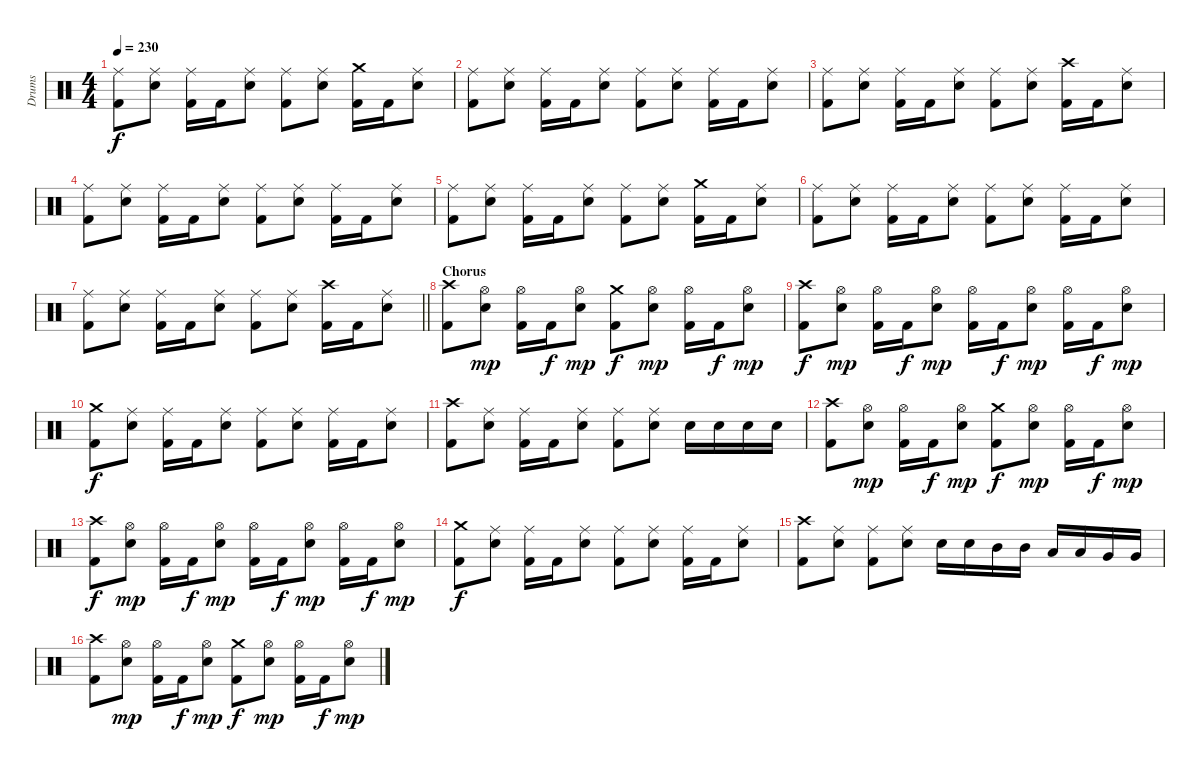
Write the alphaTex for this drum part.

\track ("Drums" "Drums") {instrument percussion}
\staff {score}
\articulation defaults
\ts (4 4)
\tempo 230
\clef neutral
\ks c
("Ride (middle)" "Kick (hit) 2").8{dy f} ("Ride (middle)" "Snare (hit) 2").8 ("Ride (middle)" "Kick (hit) 2").16 "Kick (hit) 2".16 ("Ride (middle)" "Snare (hit) 2").8 ("Ride (middle)" "Kick (hit) 2").8 ("Ride (middle)" "Snare (hit) 2").8 ("Crash medium (hit)" "Kick (hit) 2").16 "Kick (hit) 2".16 ("Ride (middle)" "Snare (hit) 2").8 |
("Ride (middle)" "Kick (hit) 2").8 ("Ride (middle)" "Snare (hit) 2").8 ("Ride (middle)" "Kick (hit) 2").16 "Kick (hit) 2".16 ("Ride (middle)" "Snare (hit) 2").8 ("Ride (middle)" "Kick (hit) 2").8 ("Ride (middle)" "Snare (hit) 2").8 ("Ride (middle)" "Kick (hit) 2").16 "Kick (hit) 2".16 ("Ride (middle)" "Snare (hit) 2").8 |
("Ride (middle)" "Kick (hit) 2").8 ("Ride (middle)" "Snare (hit) 2").8 ("Ride (middle)" "Kick (hit) 2").16 "Kick (hit) 2".16 ("Ride (middle)" "Snare (hit) 2").8 ("Ride (middle)" "Kick (hit) 2").8 ("Ride (middle)" "Snare (hit) 2").8 ("Crash high (hit)" "Kick (hit) 2").16 "Kick (hit) 2".16 ("Ride (middle)" "Snare (hit) 2").8 |
("Ride (middle)" "Kick (hit) 2").8 ("Ride (middle)" "Snare (hit) 2").8 ("Ride (middle)" "Kick (hit) 2").16 "Kick (hit) 2".16 ("Ride (middle)" "Snare (hit) 2").8 ("Ride (middle)" "Kick (hit) 2").8 ("Ride (middle)" "Snare (hit) 2").8 ("Ride (middle)" "Kick (hit) 2").16 "Kick (hit) 2".16 ("Ride (middle)" "Snare (hit) 2").8 |
("Ride (middle)" "Kick (hit) 2").8 ("Ride (middle)" "Snare (hit) 2").8 ("Ride (middle)" "Kick (hit) 2").16 "Kick (hit) 2".16 ("Ride (middle)" "Snare (hit) 2").8 ("Ride (middle)" "Kick (hit) 2").8 ("Ride (middle)" "Snare (hit) 2").8 ("Crash medium (hit)" "Kick (hit) 2").16 "Kick (hit) 2".16 ("Ride (middle)" "Snare (hit) 2").8 |
("Ride (middle)" "Kick (hit) 2").8 ("Ride (middle)" "Snare (hit) 2").8 ("Ride (middle)" "Kick (hit) 2").16 "Kick (hit) 2".16 ("Ride (middle)" "Snare (hit) 2").8 ("Ride (middle)" "Kick (hit) 2").8 ("Ride (middle)" "Snare (hit) 2").8 ("Ride (middle)" "Kick (hit) 2").16 "Kick (hit) 2".16 ("Ride (middle)" "Snare (hit) 2").8 |
\barLineRight lightlight
("Ride (middle)" "Kick (hit) 2").8 ("Ride (middle)" "Snare (hit) 2").8 ("Ride (middle)" "Kick (hit) 2").16 "Kick (hit) 2".16 ("Ride (middle)" "Snare (hit) 2").8 ("Ride (middle)" "Kick (hit) 2").8 ("Ride (middle)" "Snare (hit) 2").8 ("Crash high (hit)" "Kick (hit) 2").16 "Kick (hit) 2".16 ("Ride (middle)" "Snare (hit) 2").8 |
\section ("" "Chorus")
("Crash high (hit)" "Kick (hit) 2").8 ("Hi-Hat (open)" "Snare (hit) 2").8{dy mp} ("Hi-Hat (open)" "Kick (hit) 2").16 "Kick (hit) 2".16{dy f} ("Hi-Hat (open)" "Snare (hit) 2").8{dy mp} ("Crash medium (hit)" "Kick (hit) 2").8{dy f} ("Hi-Hat (open)" "Snare (hit) 2").8{dy mp} ("Hi-Hat (open)" "Kick (hit) 2").16 "Kick (hit) 2".16{dy f} ("Hi-Hat (open)" "Snare (hit) 2").8{dy mp} |
("Crash high (hit)" "Kick (hit) 2").8{dy f} ("Hi-Hat (open)" "Snare (hit) 2").8{dy mp} ("Hi-Hat (open)" "Kick (hit) 2").16 "Kick (hit) 2".16{dy f} ("Hi-Hat (open)" "Snare (hit) 2").8{dy mp} ("Hi-Hat (open)" "Kick (hit) 2").16 "Kick (hit) 2".16{dy f} ("Hi-Hat (open)" "Snare (hit) 2").8{dy mp} ("Hi-Hat (open)" "Kick (hit) 2").16 "Kick (hit) 2".16{dy f} ("Hi-Hat (open)" "Snare (hit) 2").8{dy mp} |
("Crash medium (hit)" "Kick (hit) 2").8{dy f} ("Ride (middle)" "Snare (hit) 2").8 ("Ride (middle)" "Kick (hit) 2").16 "Kick (hit) 2".16 ("Ride (middle)" "Snare (hit) 2").8 ("Ride (middle)" "Kick (hit) 2").8 ("Ride (middle)" "Snare (hit) 2").8 ("Ride (middle)" "Kick (hit) 2").16 "Kick (hit) 2".16 ("Ride (middle)" "Snare (hit) 2").8 |
("Crash high (hit)" "Kick (hit) 2").8 ("Ride (middle)" "Snare (hit) 2").8 ("Ride (middle)" "Kick (hit) 2").16 "Kick (hit) 2".16 ("Ride (middle)" "Snare (hit) 2").8 ("Ride (middle)" "Kick (hit) 2").8 ("Ride (middle)" "Snare (hit) 2").8 "Snare (hit) 2".16 "Snare (hit) 2".16 "Snare (hit) 2".16 "Snare (hit) 2".16 |
("Crash high (hit)" "Kick (hit) 2").8 ("Hi-Hat (open)" "Snare (hit) 2").8{dy mp} ("Hi-Hat (open)" "Kick (hit) 2").16 "Kick (hit) 2".16{dy f} ("Hi-Hat (open)" "Snare (hit) 2").8{dy mp} ("Crash medium (hit)" "Kick (hit) 2").8{dy f} ("Hi-Hat (open)" "Snare (hit) 2").8{dy mp} ("Hi-Hat (open)" "Kick (hit) 2").16 "Kick (hit) 2".16{dy f} ("Hi-Hat (open)" "Snare (hit) 2").8{dy mp} |
("Crash high (hit)" "Kick (hit) 2").8{dy f} ("Hi-Hat (open)" "Snare (hit) 2").8{dy mp} ("Hi-Hat (open)" "Kick (hit) 2").16 "Kick (hit) 2".16{dy f} ("Hi-Hat (open)" "Snare (hit) 2").8{dy mp} ("Hi-Hat (open)" "Kick (hit) 2").16 "Kick (hit) 2".16{dy f} ("Hi-Hat (open)" "Snare (hit) 2").8{dy mp} ("Hi-Hat (open)" "Kick (hit) 2").16 "Kick (hit) 2".16{dy f} ("Hi-Hat (open)" "Snare (hit) 2").8{dy mp} |
("Crash medium (hit)" "Kick (hit) 2").8{dy f} ("Ride (middle)" "Snare (hit) 2").8 ("Ride (middle)" "Kick (hit) 2").16 "Kick (hit) 2".16 ("Ride (middle)" "Snare (hit) 2").8 ("Ride (middle)" "Kick (hit) 2").8 ("Ride (middle)" "Snare (hit) 2").8 ("Ride (middle)" "Kick (hit) 2").16 "Kick (hit) 2".16 ("Ride (middle)" "Snare (hit) 2").8 |
("Crash high (hit)" "Kick (hit) 2").8 ("Ride (middle)" "Snare (hit) 2").8 ("Ride (middle)" "Kick (hit) 2").8 ("Ride (middle)" "Snare (hit) 2").8 "Snare (hit) 2".16 "Snare (hit) 2".16 "Mid Tom (hit)".16 "Mid Tom (hit)".16 "Low Tom (hit)".16 "Low Tom (hit)".16 "Very Low Tom (hit)".16 "Very Low Tom (hit)".16 |
("Crash high (hit)" "Kick (hit) 2").8 ("Hi-Hat (open)" "Snare (hit) 2").8{dy mp} ("Hi-Hat (open)" "Kick (hit) 2").16 "Kick (hit) 2".16{dy f} ("Hi-Hat (open)" "Snare (hit) 2").8{dy mp} ("Crash medium (hit)" "Kick (hit) 2").8{dy f} ("Hi-Hat (open)" "Snare (hit) 2").8{dy mp} ("Hi-Hat (open)" "Kick (hit) 2").16 "Kick (hit) 2".16{dy f} ("Hi-Hat (open)" "Snare (hit) 2").8{dy mp}
